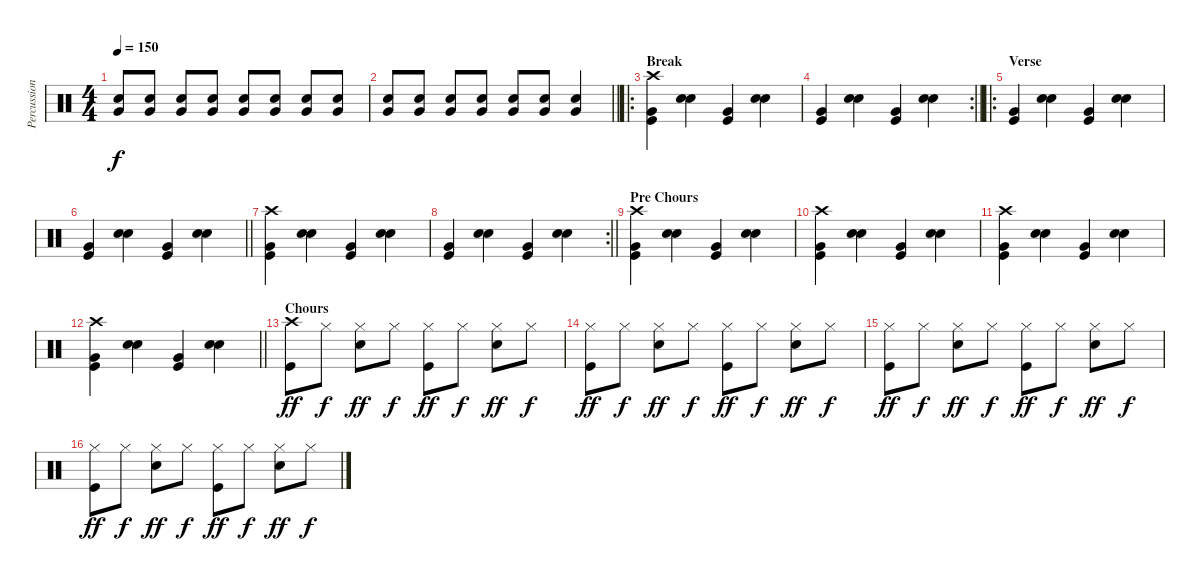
\track ("Percussion" "Percussion") {instrument percussion}
\staff {score}
\articulation defaults
\ts (4 4)
\tempo 150
\clef neutral
\ks c
("Snare (hit) 2" "Very Low Tom (hit)").8{dy f} ("Snare (hit) 2" "Very Low Tom (hit)").8 ("Snare (hit) 2" "Very Low Tom (hit)").8 ("Snare (hit) 2" "Very Low Tom (hit)").8 ("Snare (hit) 2" "Very Low Tom (hit)").8 ("Snare (hit) 2" "Very Low Tom (hit)").8 ("Snare (hit) 2" "Very Low Tom (hit)").8 ("Snare (hit) 2" "Very Low Tom (hit)").8 |
\barLineRight lightlight
("Snare (hit) 2" "Very Low Tom (hit)").8 ("Snare (hit) 2" "Very Low Tom (hit)").8 ("Snare (hit) 2" "Very Low Tom (hit)").8 ("Snare (hit) 2" "Very Low Tom (hit)").8 ("Snare (hit) 2" "Very Low Tom (hit)").8 ("Snare (hit) 2" "Very Low Tom (hit)").8 ("Snare (hit) 2" "Very Low Tom (hit)").4 |
\ro
\section ("" "Break")
("Kick (hit)" "Very Low Tom (hit)" "Crash high (hit)").4 ("Snare (hit) 2" "Snare (hit) 2").4 ("Kick (hit)" "Very Low Tom (hit)").4 ("Snare (hit) 2" "Snare (hit) 2").4 |
\rc 2
\barLineRight lightlight
("Kick (hit)" "Very Low Tom (hit)").4 ("Snare (hit) 2" "Snare (hit) 2").4 ("Kick (hit)" "Very Low Tom (hit)").4 ("Snare (hit) 2" "Snare (hit) 2").4 |
\ro
\section ("" "Verse")
("Kick (hit)" "Very Low Tom (hit)").4 ("Snare (hit) 2" "Snare (hit) 2").4 ("Kick (hit)" "Very Low Tom (hit)").4 ("Snare (hit) 2" "Snare (hit) 2").4 |
\barLineRight lightlight
("Kick (hit)" "Very Low Tom (hit)").4 ("Snare (hit) 2" "Snare (hit) 2").4 ("Kick (hit)" "Very Low Tom (hit)").4 ("Snare (hit) 2" "Snare (hit) 2").4 |
("Kick (hit)" "Very Low Tom (hit)" "Crash high (hit)").4 ("Snare (hit) 2" "Snare (hit) 2").4 ("Kick (hit)" "Very Low Tom (hit)").4 ("Snare (hit) 2" "Snare (hit) 2").4 |
\rc 2
\barLineRight lightlight
("Kick (hit)" "Very Low Tom (hit)").4 ("Snare (hit) 2" "Snare (hit) 2").4 ("Kick (hit)" "Very Low Tom (hit)").4 ("Snare (hit) 2" "Snare (hit) 2").4 |
\section ("" "Pre Chours")
("Kick (hit)" "Very Low Tom (hit)" "Crash high (hit)").4 ("Snare (hit) 2" "Snare (hit) 2").4 ("Kick (hit)" "Very Low Tom (hit)").4 ("Snare (hit) 2" "Snare (hit) 2").4 |
("Kick (hit)" "Very Low Tom (hit)" "Crash high (hit)").4 ("Snare (hit) 2" "Snare (hit) 2").4 ("Kick (hit)" "Very Low Tom (hit)").4 ("Snare (hit) 2" "Snare (hit) 2").4 |
("Kick (hit)" "Very Low Tom (hit)" "Crash high (hit)").4 ("Snare (hit) 2" "Snare (hit) 2").4 ("Kick (hit)" "Very Low Tom (hit)").4 ("Snare (hit) 2" "Snare (hit) 2").4 |
\barLineRight lightlight
("Kick (hit)" "Very Low Tom (hit)" "Crash high (hit)").4 ("Snare (hit) 2" "Snare (hit) 2").4 ("Kick (hit)" "Very Low Tom (hit)").4 ("Snare (hit) 2" "Snare (hit) 2").4 |
\section ("" "Chours")
("Crash high (hit)" "Kick (hit)").8{dy ff} "Hi-Hat (closed)".8{dy f} ("Hi-Hat (closed)" "Snare (hit) 2").8{dy ff} "Hi-Hat (closed)".8{dy f} ("Hi-Hat (closed)" "Kick (hit)").8{dy ff} "Hi-Hat (closed)".8{dy f} ("Hi-Hat (closed)" "Snare (hit) 2").8{dy ff} "Hi-Hat (closed)".8{dy f} |
("Hi-Hat (closed)" "Kick (hit)").8{dy ff} "Hi-Hat (closed)".8{dy f} ("Hi-Hat (closed)" "Snare (hit) 2").8{dy ff} "Hi-Hat (closed)".8{dy f} ("Hi-Hat (closed)" "Kick (hit)").8{dy ff} "Hi-Hat (closed)".8{dy f} ("Hi-Hat (closed)" "Snare (hit) 2").8{dy ff} "Hi-Hat (closed)".8{dy f} |
("Hi-Hat (closed)" "Kick (hit)").8{dy ff} "Hi-Hat (closed)".8{dy f} ("Hi-Hat (closed)" "Snare (hit) 2").8{dy ff} "Hi-Hat (closed)".8{dy f} ("Hi-Hat (closed)" "Kick (hit)").8{dy ff} "Hi-Hat (closed)".8{dy f} ("Hi-Hat (closed)" "Snare (hit) 2").8{dy ff} "Hi-Hat (closed)".8{dy f} |
("Hi-Hat (closed)" "Kick (hit)").8{dy ff} "Hi-Hat (closed)".8{dy f} ("Hi-Hat (closed)" "Snare (hit) 2").8{dy ff} "Hi-Hat (closed)".8{dy f} ("Hi-Hat (closed)" "Kick (hit)").8{dy ff} "Hi-Hat (closed)".8{dy f} ("Hi-Hat (closed)" "Snare (hit) 2").8{dy ff} "Hi-Hat (closed)".8{dy f}
